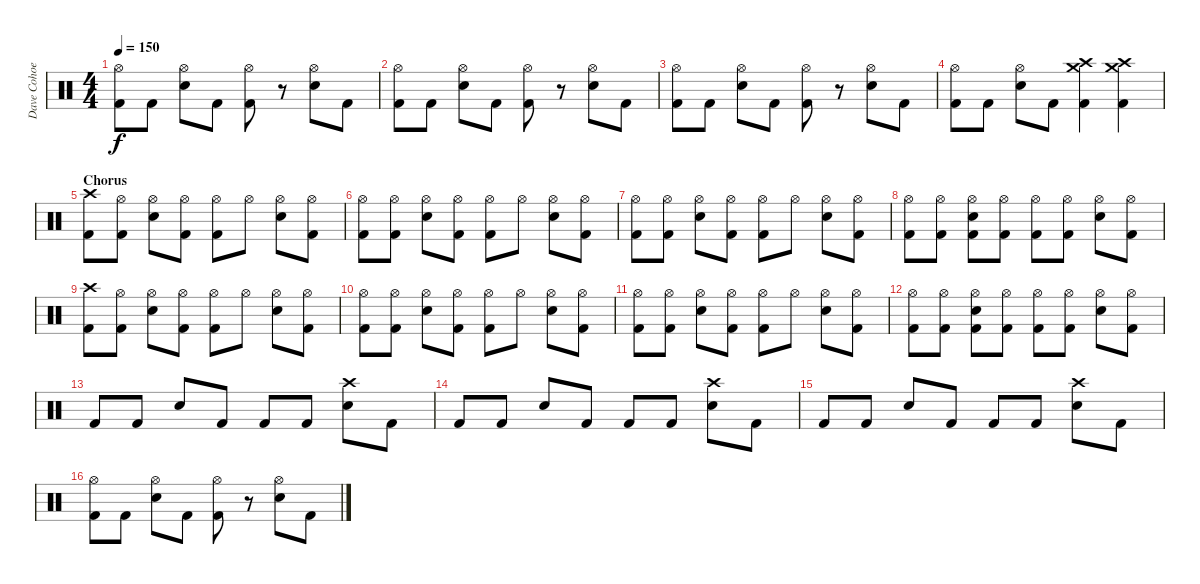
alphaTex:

\track ("Dave Cohoe" "Dave Cohoe") {instrument percussion}
\staff {score}
\articulation defaults
\ts (4 4)
\tempo 150
\clef neutral
\ks c
("Hi-Hat (open)" "Kick (hit) 2").8{dy f} "Kick (hit) 2".8 ("Hi-Hat (open)" "Snare (hit) 2").8 "Kick (hit) 2".8 ("Hi-Hat (open)" "Kick (hit) 2").8 r.8 ("Hi-Hat (open)" "Snare (hit) 2").8 "Kick (hit) 2".8 |
("Hi-Hat (open)" "Kick (hit) 2").8 "Kick (hit) 2".8 ("Hi-Hat (open)" "Snare (hit) 2").8 "Kick (hit) 2".8 ("Hi-Hat (open)" "Kick (hit) 2").8 r.8 ("Hi-Hat (open)" "Snare (hit) 2").8 "Kick (hit) 2".8 |
("Hi-Hat (open)" "Kick (hit) 2").8 "Kick (hit) 2".8 ("Hi-Hat (open)" "Snare (hit) 2").8 "Kick (hit) 2".8 ("Hi-Hat (open)" "Kick (hit) 2").8 r.8 ("Hi-Hat (open)" "Snare (hit) 2").8 "Kick (hit) 2".8 |
("Hi-Hat (open)" "Kick (hit) 2").8 "Kick (hit) 2".8 ("Hi-Hat (open)" "Snare (hit) 2").8 "Kick (hit) 2".8 ("Crash high (hit)" "Crash medium (hit)" "Kick (hit) 2").4 ("Crash high (hit)" "Crash medium (hit)" "Kick (hit) 2").4 |
\section ("" "Chorus")
("Crash high (hit)" "Kick (hit) 2").8 ("Hi-Hat (open)" "Kick (hit) 2").8 ("Hi-Hat (open)" "Snare (hit) 2").8 ("Hi-Hat (open)" "Kick (hit) 2").8 ("Hi-Hat (open)" "Kick (hit) 2").8 "Hi-Hat (open)".8 ("Hi-Hat (open)" "Snare (hit) 2").8 ("Hi-Hat (open)" "Kick (hit) 2").8 |
("Hi-Hat (open)" "Kick (hit) 2").8 ("Hi-Hat (open)" "Kick (hit) 2").8 ("Hi-Hat (open)" "Snare (hit) 2").8 ("Hi-Hat (open)" "Kick (hit) 2").8 ("Hi-Hat (open)" "Kick (hit) 2").8 "Hi-Hat (open)".8 ("Hi-Hat (open)" "Snare (hit) 2").8 ("Hi-Hat (open)" "Kick (hit) 2").8 |
("Hi-Hat (open)" "Kick (hit) 2").8 ("Hi-Hat (open)" "Kick (hit) 2").8 ("Hi-Hat (open)" "Snare (hit) 2").8 ("Hi-Hat (open)" "Kick (hit) 2").8 ("Hi-Hat (open)" "Kick (hit) 2").8 "Hi-Hat (open)".8 ("Hi-Hat (open)" "Snare (hit) 2").8 ("Hi-Hat (open)" "Kick (hit) 2").8 |
("Hi-Hat (open)" "Kick (hit) 2").8 ("Hi-Hat (open)" "Kick (hit) 2").8 ("Hi-Hat (open)" "Snare (hit) 2" "Kick (hit) 2").8 ("Hi-Hat (open)" "Kick (hit) 2").8 ("Hi-Hat (open)" "Kick (hit) 2").8 ("Hi-Hat (open)" "Kick (hit) 2").8 ("Hi-Hat (open)" "Snare (hit) 2").8 ("Hi-Hat (open)" "Kick (hit) 2").8 |
("Crash high (hit)" "Kick (hit) 2").8 ("Hi-Hat (open)" "Kick (hit) 2").8 ("Hi-Hat (open)" "Snare (hit) 2").8 ("Hi-Hat (open)" "Kick (hit) 2").8 ("Hi-Hat (open)" "Kick (hit) 2").8 "Hi-Hat (open)".8 ("Hi-Hat (open)" "Snare (hit) 2").8 ("Hi-Hat (open)" "Kick (hit) 2").8 |
("Hi-Hat (open)" "Kick (hit) 2").8 ("Hi-Hat (open)" "Kick (hit) 2").8 ("Hi-Hat (open)" "Snare (hit) 2").8 ("Hi-Hat (open)" "Kick (hit) 2").8 ("Hi-Hat (open)" "Kick (hit) 2").8 "Hi-Hat (open)".8 ("Hi-Hat (open)" "Snare (hit) 2").8 ("Hi-Hat (open)" "Kick (hit) 2").8 |
("Hi-Hat (open)" "Kick (hit) 2").8 ("Hi-Hat (open)" "Kick (hit) 2").8 ("Hi-Hat (open)" "Snare (hit) 2").8 ("Hi-Hat (open)" "Kick (hit) 2").8 ("Hi-Hat (open)" "Kick (hit) 2").8 "Hi-Hat (open)".8 ("Hi-Hat (open)" "Snare (hit) 2").8 ("Hi-Hat (open)" "Kick (hit) 2").8 |
("Hi-Hat (open)" "Kick (hit) 2").8 ("Hi-Hat (open)" "Kick (hit) 2").8 ("Hi-Hat (open)" "Snare (hit) 2" "Kick (hit) 2").8 ("Hi-Hat (open)" "Kick (hit) 2").8 ("Hi-Hat (open)" "Kick (hit) 2").8 ("Hi-Hat (open)" "Kick (hit) 2").8 ("Hi-Hat (open)" "Snare (hit) 2").8 ("Hi-Hat (open)" "Kick (hit) 2").8 |
"Kick (hit) 2".8 "Kick (hit) 2".8 "Snare (hit) 2".8 "Kick (hit) 2".8 "Kick (hit) 2".8 "Kick (hit) 2".8 ("Crash high (hit)" "Snare (hit) 2").8 "Kick (hit) 2".8 |
"Kick (hit) 2".8 "Kick (hit) 2".8 "Snare (hit) 2".8 "Kick (hit) 2".8 "Kick (hit) 2".8 "Kick (hit) 2".8 ("Crash high (hit)" "Snare (hit) 2").8 "Kick (hit) 2".8 |
"Kick (hit) 2".8 "Kick (hit) 2".8 "Snare (hit) 2".8 "Kick (hit) 2".8 "Kick (hit) 2".8 "Kick (hit) 2".8 ("Crash high (hit)" "Snare (hit) 2").8 "Kick (hit) 2".8 |
("Hi-Hat (open)" "Kick (hit) 2").8 "Kick (hit) 2".8 ("Hi-Hat (open)" "Snare (hit) 2").8 "Kick (hit) 2".8 ("Hi-Hat (open)" "Kick (hit) 2").8 r.8 ("Hi-Hat (open)" "Snare (hit) 2").8 "Kick (hit) 2".8
